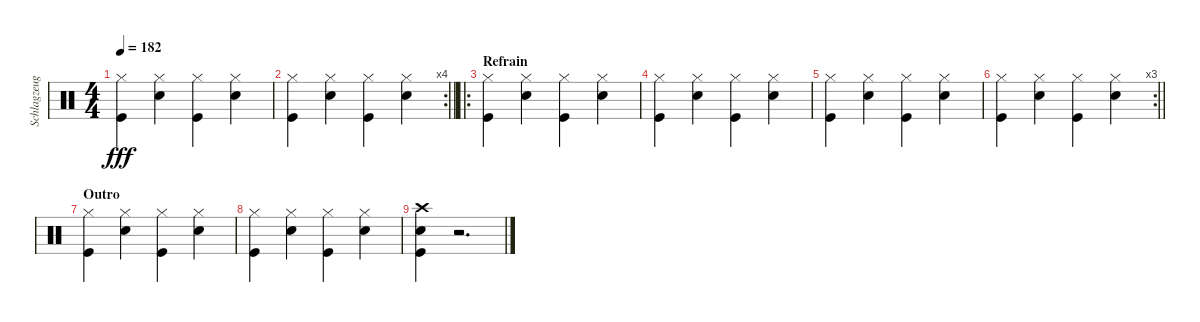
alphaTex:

\track ("Schlagzeug" "Schlagzeug") {instrument percussion}
\staff {score}
\articulation defaults
\ts (4 4)
\tempo 182
\clef neutral
\ks c
("Hi-Hat (closed)" "Kick (hit)").4{dy fff} ("Hi-Hat (closed)" "Snare (hit) 2").4 ("Hi-Hat (closed)" "Kick (hit)").4 ("Hi-Hat (closed)" "Snare (hit) 2").4 |
\rc 4
\barLineRight lightlight
("Hi-Hat (closed)" "Kick (hit)").4 ("Hi-Hat (closed)" "Snare (hit) 2").4 ("Hi-Hat (closed)" "Kick (hit)").4 ("Hi-Hat (closed)" "Snare (hit) 2").4 |
\ro
\section ("" "Refrain")
("Hi-Hat (closed)" "Kick (hit)").4 ("Hi-Hat (closed)" "Snare (hit) 2").4 ("Hi-Hat (closed)" "Kick (hit)").4 ("Hi-Hat (closed)" "Snare (hit) 2").4 |
("Hi-Hat (closed)" "Kick (hit)").4 ("Hi-Hat (closed)" "Snare (hit) 2").4 ("Hi-Hat (closed)" "Kick (hit)").4 ("Hi-Hat (closed)" "Snare (hit) 2").4 |
("Hi-Hat (closed)" "Kick (hit)").4 ("Hi-Hat (closed)" "Snare (hit) 2").4 ("Hi-Hat (closed)" "Kick (hit)").4 ("Hi-Hat (closed)" "Snare (hit) 2").4 |
\rc 3
\barLineRight lightlight
("Hi-Hat (closed)" "Kick (hit)").4 ("Hi-Hat (closed)" "Snare (hit) 2").4 ("Hi-Hat (closed)" "Kick (hit)").4 ("Hi-Hat (closed)" "Snare (hit) 2").4 |
\section ("" "Outro")
("Hi-Hat (closed)" "Kick (hit)").4 ("Hi-Hat (closed)" "Snare (hit) 2").4 ("Hi-Hat (closed)" "Kick (hit)").4 ("Hi-Hat (closed)" "Snare (hit) 2").4 |
("Hi-Hat (closed)" "Kick (hit)").4 ("Hi-Hat (closed)" "Snare (hit) 2").4 ("Hi-Hat (closed)" "Kick (hit)").4 ("Hi-Hat (closed)" "Snare (hit) 2").4 |
("Crash high (hit)" "Snare (hit) 2" "Kick (hit)").4 r.2{d}
